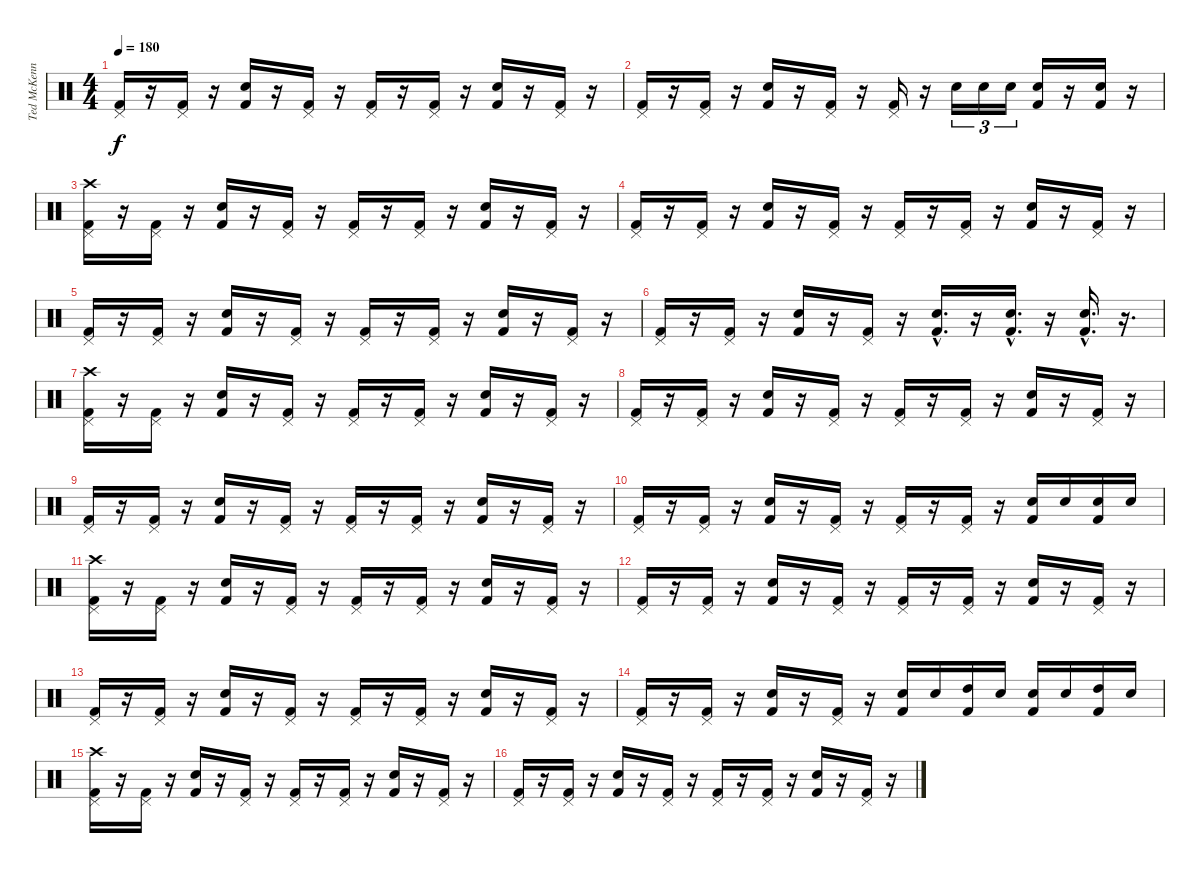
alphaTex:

\track ("Ted McKenna" "Ted McKenn") {instrument percussion}
\staff {score}
\articulation defaults
\ts (4 4)
\tempo 180
\clef neutral
\ks c
("Pedal Hi-Hat (hit)" "Kick (hit) 2").16{dy f} r.16 ("Pedal Hi-Hat (hit)" "Kick (hit) 2").16 r.16 ("Snare (hit) 2" "Kick (hit) 2").16 r.16 ("Pedal Hi-Hat (hit)" "Kick (hit) 2").16 r.16 ("Pedal Hi-Hat (hit)" "Kick (hit) 2").16 r.16 ("Pedal Hi-Hat (hit)" "Kick (hit) 2").16 r.16 ("Snare (hit) 2" "Kick (hit) 2").16 r.16 ("Pedal Hi-Hat (hit)" "Kick (hit) 2").16 r.16 |
("Pedal Hi-Hat (hit)" "Kick (hit) 2").16 r.16 ("Pedal Hi-Hat (hit)" "Kick (hit) 2").16 r.16 ("Snare (hit) 2" "Kick (hit) 2").16 r.16 ("Pedal Hi-Hat (hit)" "Kick (hit) 2").16 r.16 ("Pedal Hi-Hat (hit)" "Kick (hit) 2").16 r.16 "Snare (hit) 2".16{tu (3 2)} "Electric Snare (hit)".16{tu (3 2)} "Snare (hit) 2".16{tu (3 2)} ("Electric Snare (hit)" "Kick (hit) 2").16 r.16 ("Electric Snare (hit)" "Kick (hit) 2").16 r.16 |
("Crash high (hit)" "Pedal Hi-Hat (hit)" "Kick (hit) 2").16 r.16 ("Pedal Hi-Hat (hit)" "Kick (hit) 2").16 r.16 ("Snare (hit) 2" "Kick (hit) 2").16 r.16 ("Pedal Hi-Hat (hit)" "Kick (hit) 2").16 r.16 ("Pedal Hi-Hat (hit)" "Kick (hit) 2").16 r.16 ("Pedal Hi-Hat (hit)" "Kick (hit) 2").16 r.16 ("Snare (hit) 2" "Kick (hit) 2").16 r.16 ("Pedal Hi-Hat (hit)" "Kick (hit) 2").16 r.16 |
("Pedal Hi-Hat (hit)" "Kick (hit) 2").16 r.16 ("Pedal Hi-Hat (hit)" "Kick (hit) 2").16 r.16 ("Snare (hit) 2" "Kick (hit) 2").16 r.16 ("Pedal Hi-Hat (hit)" "Kick (hit) 2").16 r.16 ("Pedal Hi-Hat (hit)" "Kick (hit) 2").16 r.16 ("Pedal Hi-Hat (hit)" "Kick (hit) 2").16 r.16 ("Snare (hit) 2" "Kick (hit) 2").16 r.16 ("Pedal Hi-Hat (hit)" "Kick (hit) 2").16 r.16 |
("Pedal Hi-Hat (hit)" "Kick (hit) 2").16 r.16 ("Pedal Hi-Hat (hit)" "Kick (hit) 2").16 r.16 ("Snare (hit) 2" "Kick (hit) 2").16 r.16 ("Pedal Hi-Hat (hit)" "Kick (hit) 2").16 r.16 ("Pedal Hi-Hat (hit)" "Kick (hit) 2").16 r.16 ("Pedal Hi-Hat (hit)" "Kick (hit) 2").16 r.16 ("Snare (hit) 2" "Kick (hit) 2").16 r.16 ("Pedal Hi-Hat (hit)" "Kick (hit) 2").16 r.16 |
("Pedal Hi-Hat (hit)" "Kick (hit) 2").16 r.16 ("Pedal Hi-Hat (hit)" "Kick (hit) 2").16 r.16 ("Snare (hit) 2" "Kick (hit) 2").16 r.16 ("Pedal Hi-Hat (hit)" "Kick (hit) 2").16 r.16 ("Snare (hit) 2"{hac} "Kick (hit) 2"{hac}).16{d} r.16 ("Snare (hit) 2"{hac} "Kick (hit) 2"{hac}).16{d} r.16 ("Snare (hit) 2"{hac} "Kick (hit) 2"{hac}).16{d} r.16{d} |
("Crash high (hit)" "Pedal Hi-Hat (hit)" "Kick (hit) 2").16 r.16 ("Pedal Hi-Hat (hit)" "Kick (hit) 2").16 r.16 ("Snare (hit) 2" "Kick (hit) 2").16 r.16 ("Pedal Hi-Hat (hit)" "Kick (hit) 2").16 r.16 ("Pedal Hi-Hat (hit)" "Kick (hit) 2").16 r.16 ("Pedal Hi-Hat (hit)" "Kick (hit) 2").16 r.16 ("Snare (hit) 2" "Kick (hit) 2").16 r.16 ("Pedal Hi-Hat (hit)" "Kick (hit) 2").16 r.16 |
("Pedal Hi-Hat (hit)" "Kick (hit) 2").16 r.16 ("Pedal Hi-Hat (hit)" "Kick (hit) 2").16 r.16 ("Snare (hit) 2" "Kick (hit) 2").16 r.16 ("Pedal Hi-Hat (hit)" "Kick (hit) 2").16 r.16 ("Pedal Hi-Hat (hit)" "Kick (hit) 2").16 r.16 ("Pedal Hi-Hat (hit)" "Kick (hit) 2").16 r.16 ("Snare (hit) 2" "Kick (hit) 2").16 r.16 ("Pedal Hi-Hat (hit)" "Kick (hit) 2").16 r.16 |
("Pedal Hi-Hat (hit)" "Kick (hit) 2").16 r.16 ("Pedal Hi-Hat (hit)" "Kick (hit) 2").16 r.16 ("Snare (hit) 2" "Kick (hit) 2").16 r.16 ("Pedal Hi-Hat (hit)" "Kick (hit) 2").16 r.16 ("Pedal Hi-Hat (hit)" "Kick (hit) 2").16 r.16 ("Pedal Hi-Hat (hit)" "Kick (hit) 2").16 r.16 ("Snare (hit) 2" "Kick (hit) 2").16 r.16 ("Pedal Hi-Hat (hit)" "Kick (hit) 2").16 r.16 |
("Pedal Hi-Hat (hit)" "Kick (hit) 2").16 r.16 ("Pedal Hi-Hat (hit)" "Kick (hit) 2").16 r.16 ("Snare (hit) 2" "Kick (hit) 2").16 r.16 ("Pedal Hi-Hat (hit)" "Kick (hit) 2").16 r.16 ("Pedal Hi-Hat (hit)" "Kick (hit) 2").16 r.16 ("Pedal Hi-Hat (hit)" "Kick (hit) 2").16 r.16 ("Electric Snare (hit)" "Kick (hit) 2").16 "Electric Snare (hit)".16 ("Electric Snare (hit)" "Kick (hit) 2").16 "Electric Snare (hit)".16 |
("Crash high (hit)" "Pedal Hi-Hat (hit)" "Kick (hit) 2").16 r.16 ("Pedal Hi-Hat (hit)" "Kick (hit) 2").16 r.16 ("Snare (hit) 2" "Kick (hit) 2").16 r.16 ("Pedal Hi-Hat (hit)" "Kick (hit) 2").16 r.16 ("Pedal Hi-Hat (hit)" "Kick (hit) 2").16 r.16 ("Pedal Hi-Hat (hit)" "Kick (hit) 2").16 r.16 ("Snare (hit) 2" "Kick (hit) 2").16 r.16 ("Pedal Hi-Hat (hit)" "Kick (hit) 2").16 r.16 |
("Pedal Hi-Hat (hit)" "Kick (hit) 2").16 r.16 ("Pedal Hi-Hat (hit)" "Kick (hit) 2").16 r.16 ("Snare (hit) 2" "Kick (hit) 2").16 r.16 ("Pedal Hi-Hat (hit)" "Kick (hit) 2").16 r.16 ("Pedal Hi-Hat (hit)" "Kick (hit) 2").16 r.16 ("Pedal Hi-Hat (hit)" "Kick (hit) 2").16 r.16 ("Snare (hit) 2" "Kick (hit) 2").16 r.16 ("Pedal Hi-Hat (hit)" "Kick (hit) 2").16 r.16 |
("Pedal Hi-Hat (hit)" "Kick (hit) 2").16 r.16 ("Pedal Hi-Hat (hit)" "Kick (hit) 2").16 r.16 ("Snare (hit) 2" "Kick (hit) 2").16 r.16 ("Pedal Hi-Hat (hit)" "Kick (hit) 2").16 r.16 ("Pedal Hi-Hat (hit)" "Kick (hit) 2").16 r.16 ("Pedal Hi-Hat (hit)" "Kick (hit) 2").16 r.16 ("Snare (hit) 2" "Kick (hit) 2").16 r.16 ("Pedal Hi-Hat (hit)" "Kick (hit) 2").16 r.16 |
("Pedal Hi-Hat (hit)" "Kick (hit) 2").16 r.16 ("Pedal Hi-Hat (hit)" "Kick (hit) 2").16 r.16 ("Snare (hit) 2" "Kick (hit) 2").16 r.16 ("Pedal Hi-Hat (hit)" "Kick (hit) 2").16 r.16 ("Electric Snare (hit)" "Kick (hit) 2").16 "Electric Snare (hit)".16 ("High Tom (hit)" "Kick (hit) 2").16 "Snare (hit) 2".16 ("Electric Snare (hit)" "Kick (hit) 2").16 "Electric Snare (hit)".16 ("High Tom (hit)" "Kick (hit) 2").16 "Snare (hit) 2".16 |
("Crash high (hit)" "Pedal Hi-Hat (hit)" "Kick (hit) 2").16 r.16 ("Pedal Hi-Hat (hit)" "Kick (hit) 2").16 r.16 ("Snare (hit) 2" "Kick (hit) 2").16 r.16 ("Pedal Hi-Hat (hit)" "Kick (hit) 2").16 r.16 ("Pedal Hi-Hat (hit)" "Kick (hit) 2").16 r.16 ("Pedal Hi-Hat (hit)" "Kick (hit) 2").16 r.16 ("Snare (hit) 2" "Kick (hit) 2").16 r.16 ("Pedal Hi-Hat (hit)" "Kick (hit) 2").16 r.16 |
("Pedal Hi-Hat (hit)" "Kick (hit) 2").16 r.16 ("Pedal Hi-Hat (hit)" "Kick (hit) 2").16 r.16 ("Snare (hit) 2" "Kick (hit) 2").16 r.16 ("Pedal Hi-Hat (hit)" "Kick (hit) 2").16 r.16 ("Pedal Hi-Hat (hit)" "Kick (hit) 2").16 r.16 ("Pedal Hi-Hat (hit)" "Kick (hit) 2").16 r.16 ("Snare (hit) 2" "Kick (hit) 2").16 r.16 ("Pedal Hi-Hat (hit)" "Kick (hit) 2").16 r.16
